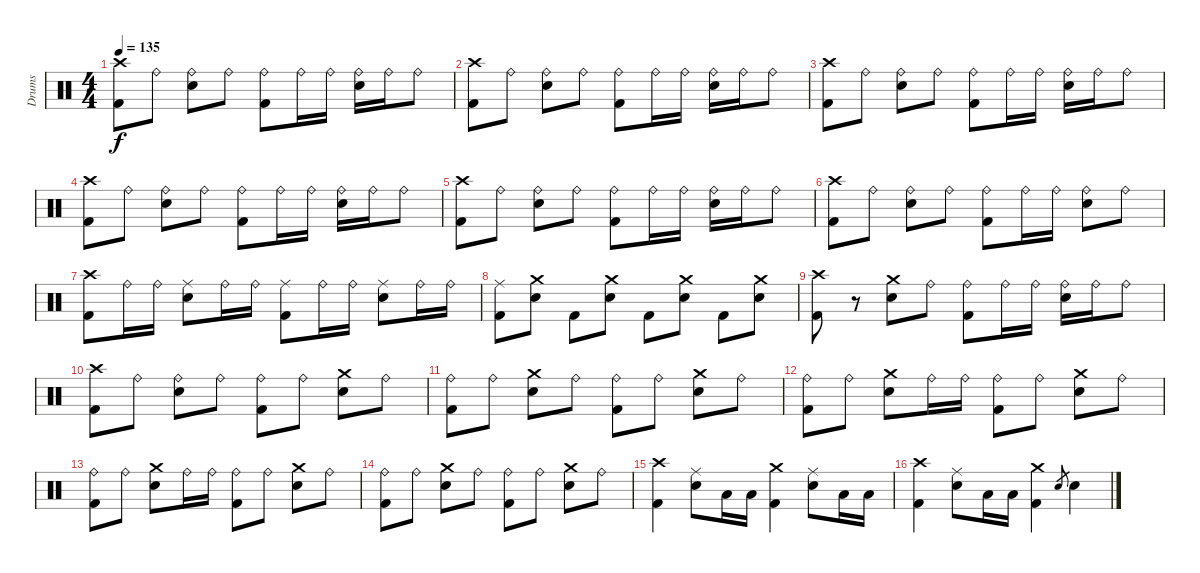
\track ("Drums" "Drums") {instrument percussion}
\staff {score}
\articulation defaults
\ts (4 4)
\tempo 135
\clef neutral
\ks c
("Crash high (hit)" "Kick (hit) 2").8{dy f} "Ride (bell)".8 ("Ride (bell)" "Snare (hit) 2").8 "Ride (bell)".8 ("Ride (bell)" "Kick (hit) 2").8 "Ride (bell)".16 "Ride (bell)".16 ("Ride (bell)" "Snare (hit) 2").16 "Ride (bell)".16 "Ride (bell)".8 |
("Crash high (hit)" "Kick (hit) 2").8 "Ride (bell)".8 ("Ride (bell)" "Snare (hit) 2").8 "Ride (bell)".8 ("Ride (bell)" "Kick (hit) 2").8 "Ride (bell)".16 "Ride (bell)".16 ("Ride (bell)" "Snare (hit) 2").16 "Ride (bell)".16 "Ride (bell)".8 |
("Crash high (hit)" "Kick (hit) 2").8 "Ride (bell)".8 ("Ride (bell)" "Snare (hit) 2").8 "Ride (bell)".8 ("Ride (bell)" "Kick (hit) 2").8 "Ride (bell)".16 "Ride (bell)".16 ("Ride (bell)" "Snare (hit) 2").16 "Ride (bell)".16 "Ride (bell)".8 |
("Crash high (hit)" "Kick (hit) 2").8 "Ride (bell)".8 ("Ride (bell)" "Snare (hit) 2").8 "Ride (bell)".8 ("Ride (bell)" "Kick (hit) 2").8 "Ride (bell)".16 "Ride (bell)".16 ("Ride (bell)" "Snare (hit) 2").16 "Ride (bell)".16 "Ride (bell)".8 |
("Crash high (hit)" "Kick (hit) 2").8 "Ride (bell)".8 ("Ride (bell)" "Snare (hit) 2").8 "Ride (bell)".8 ("Ride (bell)" "Kick (hit) 2").8 "Ride (bell)".16 "Ride (bell)".16 ("Ride (bell)" "Snare (hit) 2").16 "Ride (bell)".16 "Ride (bell)".8 |
("Crash high (hit)" "Kick (hit) 2").8 "Ride (bell)".8 ("Ride (bell)" "Snare (hit) 2").8 "Ride (bell)".8 ("Ride (bell)" "Kick (hit) 2").8 "Ride (bell)".16 "Ride (bell)".16 ("Ride (bell)" "Snare (hit) 2").8 "Ride (bell)".8 |
("Crash high (hit)" "Kick (hit) 2").8 "Ride (bell)".16 "Ride (bell)".16 ("Ride (middle)" "Snare (hit) 2").8 "Ride (bell)".16 "Ride (bell)".16 ("Ride (middle)" "Kick (hit) 2").8 "Ride (bell)".16 "Ride (bell)".16 ("Ride (middle)" "Snare (hit) 2").8 "Ride (bell)".16 "Ride (bell)".16 |
("Ride (middle)" "Kick (hit) 2").8 ("Crash medium (hit)" "Snare (hit) 2").8 "Kick (hit) 2".8 ("Crash medium (hit)" "Snare (hit) 2").8 "Kick (hit) 2".8 ("Crash medium (hit)" "Snare (hit) 2").8 "Kick (hit) 2".8 ("Crash medium (hit)" "Snare (hit) 2").8 |
("Crash high (hit)" "Kick (hit) 2").8 r.8 ("Crash medium (hit)" "Snare (hit) 2").8 "Ride (bell)".8 ("Ride (bell)" "Kick (hit) 2").8 "Ride (bell)".16 "Ride (bell)".16 ("Ride (bell)" "Snare (hit) 2").16 "Ride (bell)".16 "Ride (bell)".8 |
("Crash high (hit)" "Kick (hit) 2").8 "Ride (bell)".8 ("Ride (bell)" "Snare (hit) 2").8 "Ride (bell)".8 ("Ride (bell)" "Kick (hit) 2").8 "Ride (bell)".8 ("Crash medium (hit)" "Snare (hit) 2").8 "Ride (bell)".8 |
("Ride (bell)" "Kick (hit) 2").8 "Ride (bell)".8 ("Crash medium (hit)" "Snare (hit) 2").8 "Ride (bell)".8 ("Ride (bell)" "Kick (hit) 2").8 "Ride (bell)".8 ("Crash medium (hit)" "Snare (hit) 2").8 "Ride (bell)".8 |
("Ride (bell)" "Kick (hit) 2").8 "Ride (bell)".8 ("Crash medium (hit)" "Snare (hit) 2").8 "Ride (bell)".16 "Ride (bell)".16 ("Ride (bell)" "Kick (hit) 2").8 "Ride (bell)".8 ("Crash medium (hit)" "Snare (hit) 2").8 "Ride (bell)".8 |
("Ride (bell)" "Kick (hit) 2").8 "Ride (bell)".8 ("Crash medium (hit)" "Snare (hit) 2").8 "Ride (bell)".16 "Ride (bell)".16 ("Ride (bell)" "Kick (hit) 2").8 "Ride (bell)".8 ("Crash medium (hit)" "Snare (hit) 2").8 "Ride (bell)".8 |
("Ride (bell)" "Kick (hit) 2").8 "Ride (bell)".8 ("Crash medium (hit)" "Snare (hit) 2").8 "Ride (bell)".8 ("Ride (bell)" "Kick (hit) 2").8 "Ride (bell)".8 ("Crash medium (hit)" "Snare (hit) 2").8 "Ride (bell)".8 |
("Crash high (hit)" "Kick (hit) 2").4 ("Ride (middle)" "Snare (hit) 2").8 "Low Tom (hit)".16 "Low Tom (hit)".16 ("Crash medium (hit)" "Kick (hit) 2").4 ("Ride (middle)" "Snare (hit) 2").8 "Low Tom (hit)".16 "Low Tom (hit)".16 |
("Crash high (hit)" "Kick (hit) 2").4 ("Ride (middle)" "Snare (hit) 2").8 "Low Tom (hit)".16 "Low Tom (hit)".16 ("Crash medium (hit)" "Kick (hit) 2").4 "Snare (hit) 2".8{gr} "Snare (hit) 2".4
